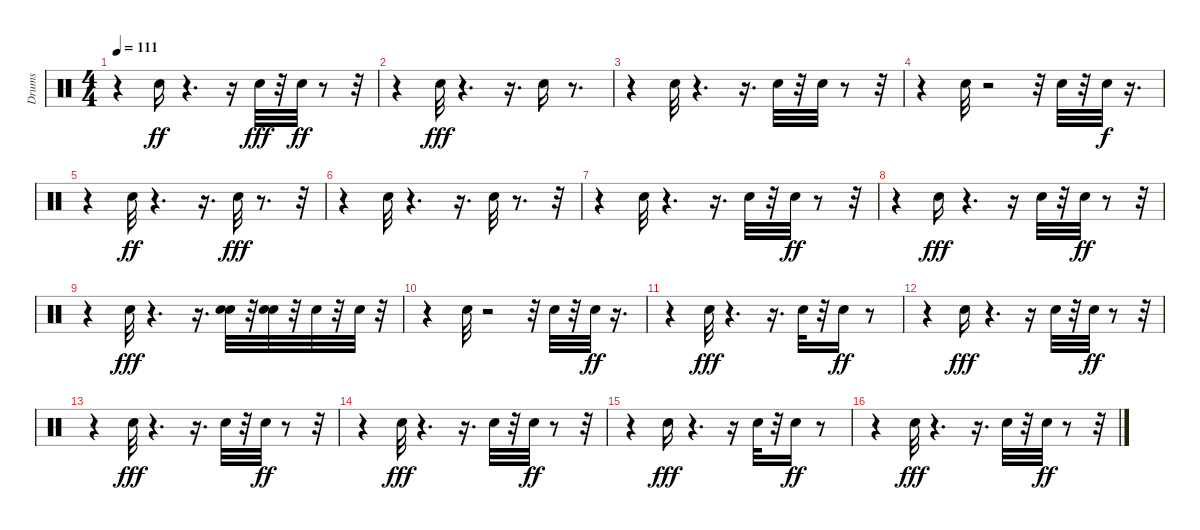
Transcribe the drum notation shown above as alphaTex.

\track ("Drums" "Drums") {instrument percussion}
\staff {score}
\articulation defaults
\ts (4 4)
\tempo 111
\clef neutral
\ks c
r.4{dy ff} "Electric Snare (hit)".16 r.4{d} r.16 "Electric Snare (hit)".32{dy fff} r.32 "Electric Snare (hit)".32{dy ff} r.8 r.32 |
r.4 "Electric Snare (hit)".32{dy fff} r.4{d} r.16{d} "Electric Snare (hit)".16 r.8{d} |
r.4 "Electric Snare (hit)".32 r.4{d} r.16{d} "Electric Snare (hit)".32 r.32 "Electric Snare (hit)".32 r.8 r.32 |
r.4 "Electric Snare (hit)".32 r.2 r.32 "Electric Snare (hit)".32 r.32 "Electric Snare (hit)".32{dy f} r.16{d} |
r.4 "Electric Snare (hit)".32{dy ff} r.4{d} r.16{d} "Electric Snare (hit)".32{dy fff} r.8{d} r.32 |
r.4 "Electric Snare (hit)".32 r.4{d} r.16{d} "Electric Snare (hit)".32 r.8{d} r.32 |
r.4 "Electric Snare (hit)".32 r.4{d} r.16{d} "Electric Snare (hit)".32 r.32 "Electric Snare (hit)".32{dy ff} r.8 r.32 |
r.4 "Electric Snare (hit)".16{dy fff} r.4{d} r.16 "Electric Snare (hit)".32 r.32 "Electric Snare (hit)".32{dy ff} r.8 r.32 |
r.4 "Electric Snare (hit)".32{dy fff} r.4{d} r.16{d} ("Electric Snare (hit)" "Electric Snare (hit)").32 r.32 ("Electric Snare (hit)" "Electric Snare (hit)").32 r.32 "Electric Snare (hit)".32 r.32 "Electric Snare (hit)".32 r.32 |
r.4 "Electric Snare (hit)".32 r.2 r.32 "Electric Snare (hit)".32 r.32 "Electric Snare (hit)".32{dy ff} r.16{d} |
r.4 "Electric Snare (hit)".32{dy fff} r.4{d} r.16{d} "Electric Snare (hit)".32 r.32 "Electric Snare (hit)".16{dy ff} r.8 |
r.4 "Electric Snare (hit)".16{dy fff} r.4{d} r.16 "Electric Snare (hit)".32 r.32 "Electric Snare (hit)".32{dy ff} r.8 r.32 |
r.4 "Electric Snare (hit)".32{dy fff} r.4{d} r.16{d} "Electric Snare (hit)".32 r.32 "Electric Snare (hit)".32{dy ff} r.8 r.32 |
r.4 "Electric Snare (hit)".32{dy fff} r.4{d} r.16{d} "Electric Snare (hit)".32 r.32 "Electric Snare (hit)".32{dy ff} r.8 r.32 |
r.4 "Electric Snare (hit)".16{dy fff} r.4{d} r.16 "Electric Snare (hit)".32 r.32 "Electric Snare (hit)".16{dy ff} r.8 |
r.4 "Electric Snare (hit)".32{dy fff} r.4{d} r.16{d} "Electric Snare (hit)".32 r.32 "Electric Snare (hit)".32{dy ff} r.8 r.32
